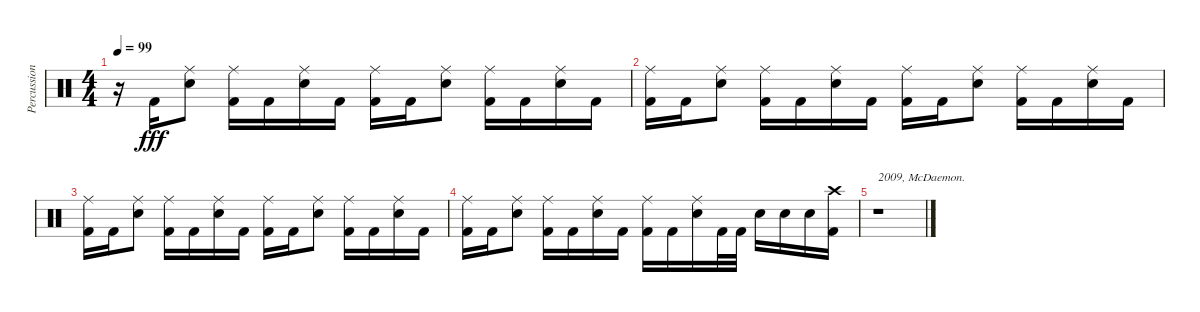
\track ("Percussions" "Percussion") {instrument percussion}
\staff {score}
\articulation defaults
\ts (4 4)
\tempo 99
\clef neutral
\ks c
r.16{dy fff} "Kick (hit) 2".16 ("Snare (hit) 2" "Ride (middle)").8 ("Kick (hit) 2" "Ride (middle)").16 "Kick (hit) 2".16 ("Snare (hit) 2" "Ride (middle)").16 "Kick (hit) 2".16 ("Kick (hit) 2" "Ride (middle)").16 "Kick (hit) 2".16 ("Snare (hit) 2" "Ride (middle)").8 ("Kick (hit) 2" "Ride (middle)").16 "Kick (hit) 2".16 ("Snare (hit) 2" "Ride (middle)").16 "Kick (hit) 2".16 |
("Kick (hit) 2" "Ride (middle)").16 "Kick (hit) 2".16 ("Snare (hit) 2" "Ride (middle)").8 ("Kick (hit) 2" "Ride (middle)").16 "Kick (hit) 2".16 ("Snare (hit) 2" "Ride (middle)").16 "Kick (hit) 2".16 ("Kick (hit) 2" "Ride (middle)").16 "Kick (hit) 2".16 ("Snare (hit) 2" "Ride (middle)").8 ("Kick (hit) 2" "Ride (middle)").16 "Kick (hit) 2".16 ("Snare (hit) 2" "Ride (middle)").16 "Kick (hit) 2".16 |
("Kick (hit) 2" "Ride (middle)").16 "Kick (hit) 2".16 ("Snare (hit) 2" "Ride (middle)").8 ("Kick (hit) 2" "Ride (middle)").16 "Kick (hit) 2".16 ("Snare (hit) 2" "Ride (middle)").16 "Kick (hit) 2".16 ("Kick (hit) 2" "Ride (middle)").16 "Kick (hit) 2".16 ("Snare (hit) 2" "Ride (middle)").8 ("Kick (hit) 2" "Ride (middle)").16 "Kick (hit) 2".16 ("Snare (hit) 2" "Ride (middle)").16 "Kick (hit) 2".16 |
("Kick (hit) 2" "Ride (middle)").16 "Kick (hit) 2".16 ("Snare (hit) 2" "Ride (middle)").8 ("Kick (hit) 2" "Ride (middle)").16 "Kick (hit) 2".16 ("Snare (hit) 2" "Ride (middle)").16 "Kick (hit) 2".16 ("Kick (hit) 2" "Ride (middle)").16 "Kick (hit) 2".16 ("Snare (hit) 2" "Ride (middle)").16 "Kick (hit) 2".32 "Kick (hit) 2".32 "Snare (hit) 2".16 "Snare (hit) 2".16 "Snare (hit) 2".16 ("Kick (hit) 2" "Crash high (hit)").16 |
r.1{txt "2009, McDaemon."}
